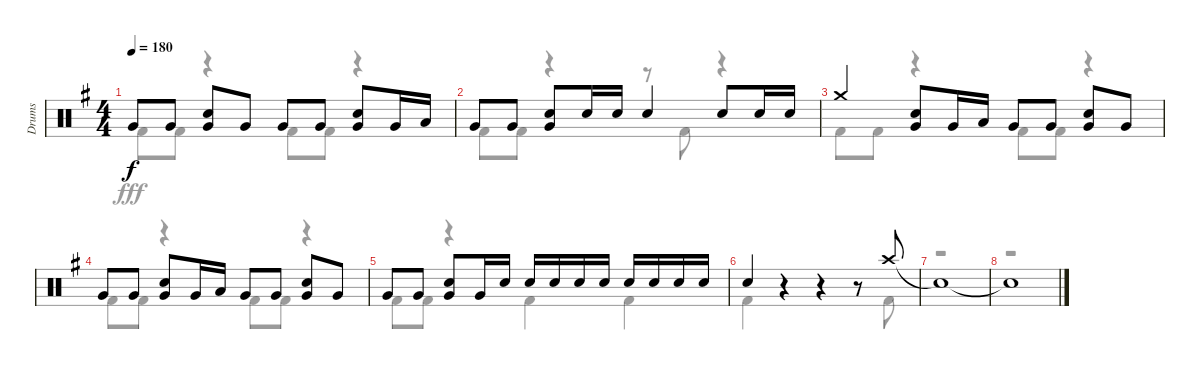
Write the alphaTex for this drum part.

\track ("Drums" "Drums") {instrument percussion}
\staff {score}
\articulation defaults
\voice
\ts (4 4)
\tempo 180
\clef neutral
\ks g "Very Low Tom (hit)".8{dy f} "Very Low Tom (hit)".8
("Snare (hit) 2" "Very Low Tom (hit)").8 "Very Low Tom (hit)".8 "Very Low Tom (hit)".8 "Very Low Tom (hit)".8 ("Snare (hit) 2" "Very Low Tom (hit)").8 "Very Low Tom (hit)".16 "Low Tom (hit)".16 |
"Very Low Tom (hit)".8 "Very Low Tom (hit)".8 ("Snare (hit) 2" "Very Low Tom (hit)").8 "Snare (hit) 2".16 "Snare (hit) 2".16 "Snare (hit) 2".4 "Snare (hit) 2".8 "Snare (hit) 2".16 "Snare (hit) 2".16 |
"Crash medium (hit)".4 ("Snare (hit) 2" "Very Low Tom (hit)").8 "Very Low Tom (hit)".16 "Low Tom (hit)".16 "Very Low Tom (hit)".8 "Very Low Tom (hit)".8 ("Snare (hit) 2" "Very Low Tom (hit)").8 "Very Low Tom (hit)".8 |
"Very Low Tom (hit)".8 "Very Low Tom (hit)".8 ("Snare (hit) 2" "Very Low Tom (hit)").8 "Very Low Tom (hit)".16 "Low Tom (hit)".16 "Very Low Tom (hit)".8 "Very Low Tom (hit)".8 ("Snare (hit) 2" "Very Low Tom (hit)").8 "Very Low Tom (hit)".8 |
"Very Low Tom (hit)".8 "Very Low Tom (hit)".8 ("Snare (hit) 2" "Very Low Tom (hit)").8 "Very Low Tom (hit)".16 "Snare (hit) 2".16 "Snare (hit) 2".16 "Snare (hit) 2".16 "Snare (hit) 2".16 "Snare (hit) 2".16 "Snare (hit) 2".16 "Snare (hit) 2".16 "Snare (hit) 2".16 "Snare (hit) 2".16 |
"Snare (hit) 2".4 r.4 r.4 r.8 "Crash high (hit)".8 |
"Snare (hit)"{t}.1 |
"Snare (hit)"{t}.1
\voice
\clef neutral
\ottava regular
\simile none
\ks g "Kick (hit) 2".8{dy fff} "Kick (hit) 2".8
r.4 "Kick (hit) 2".8 "Kick (hit) 2".8 r.4 |
"Kick (hit) 2".8 "Kick (hit) 2".8 r.4 r.8 "Kick (hit) 2".8 r.4 |
"Kick (hit) 2".8 "Kick (hit) 2".8 r.4 "Kick (hit) 2".8 "Kick (hit) 2".8 r.4 |
"Kick (hit) 2".8 "Kick (hit) 2".8 r.4 "Kick (hit) 2".8 "Kick (hit) 2".8 r.4 |
"Kick (hit) 2".8 "Kick (hit) 2".8 r.4 "Kick (hit) 2".4 "Kick (hit) 2".4 |
"Kick (hit) 2".4 r.4 r.4 r.8 "Kick (hit) 2".8 |
r.1 |
r.1
